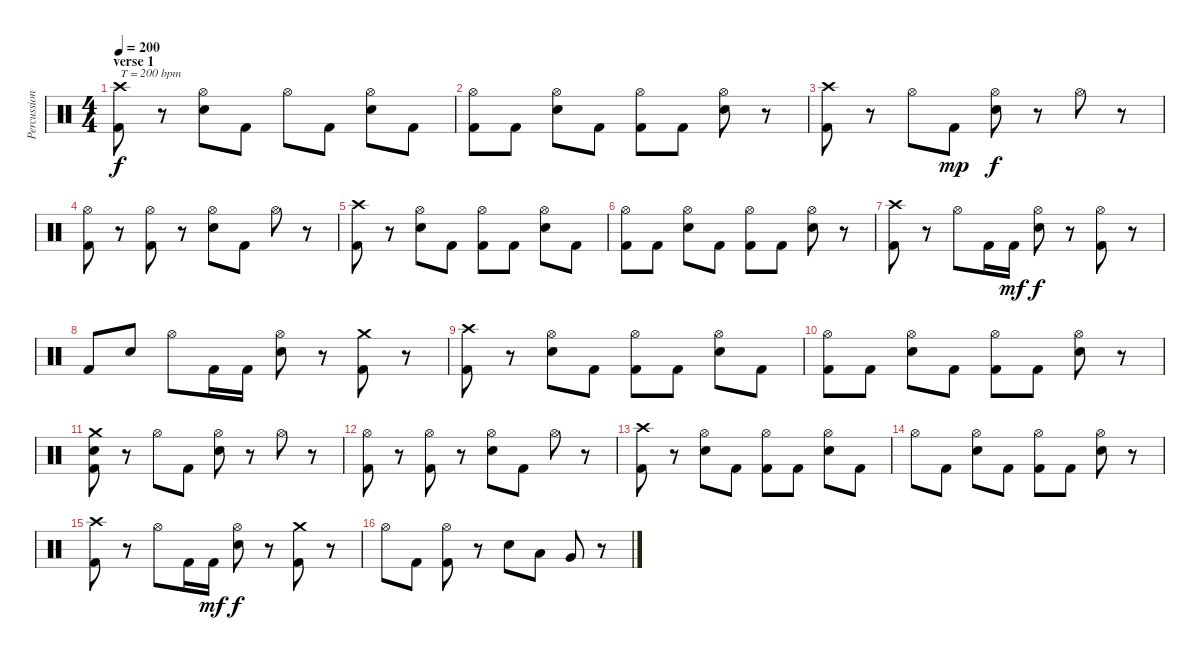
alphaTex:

\track ("Percussion" "Percussion") {instrument percussion}
\staff {score}
\articulation defaults
\ts (4 4)
\section ("" "verse 1")
\tempo 200
\clef neutral
\ks c
("Crash high (hit)" "Kick (hit) 2").8{txt "T = 200 bpm" dy f} r.8 ("Hi-Hat (open)" "Electric Snare (hit)").8 "Kick (hit) 2".8 "Hi-Hat (open)".8 "Kick (hit) 2".8 ("Hi-Hat (open)" "Electric Snare (hit)").8 "Kick (hit) 2".8 |
("Hi-Hat (open)" "Kick (hit) 2").8 "Kick (hit) 2".8 ("Hi-Hat (open)" "Electric Snare (hit)").8 "Kick (hit) 2".8 ("Hi-Hat (open)" "Kick (hit) 2").8 "Kick (hit) 2".8 ("Hi-Hat (open)" "Electric Snare (hit)").8 r.8 |
("Crash high (hit)" "Kick (hit) 2").8 r.8 "Hi-Hat (open)".8 "Kick (hit) 2".8{dy mp} ("Hi-Hat (open)" "Electric Snare (hit)").8{dy f} r.8 "Hi-Hat (open)".8 r.8 |
("Hi-Hat (open)" "Kick (hit) 2").8 r.8 ("Hi-Hat (open)" "Kick (hit) 2").8 r.8 ("Hi-Hat (open)" "Electric Snare (hit)").8 "Kick (hit) 2".8 "Hi-Hat (open)".8 r.8 |
("Crash high (hit)" "Kick (hit) 2").8 r.8 ("Hi-Hat (open)" "Electric Snare (hit)").8 "Kick (hit) 2".8 ("Hi-Hat (open)" "Kick (hit) 2").8 "Kick (hit) 2".8 ("Hi-Hat (open)" "Electric Snare (hit)").8 "Kick (hit) 2".8 |
("Hi-Hat (open)" "Kick (hit) 2").8 "Kick (hit) 2".8 ("Hi-Hat (open)" "Electric Snare (hit)").8 "Kick (hit) 2".8 ("Hi-Hat (open)" "Kick (hit) 2").8 "Kick (hit) 2".8 ("Hi-Hat (open)" "Electric Snare (hit)").8 r.8 |
("Crash high (hit)" "Kick (hit) 2").8 r.8 "Hi-Hat (open)".8 "Kick (hit) 2".16 "Kick (hit) 2".16{dy mf} ("Hi-Hat (open)" "Electric Snare (hit)").8{dy f} r.8 ("Hi-Hat (open)" "Kick (hit) 2").8 r.8 |
"Kick (hit) 2".8 "Electric Snare (hit)".8 "Hi-Hat (open)".8 "Kick (hit) 2".16 "Kick (hit) 2".16 ("Hi-Hat (open)" "Electric Snare (hit)").8 r.8 ("Crash medium (hit)" "Kick (hit) 2").8 r.8 |
("Crash high (hit)" "Kick (hit) 2").8 r.8 ("Hi-Hat (open)" "Electric Snare (hit)").8 "Kick (hit) 2".8 ("Hi-Hat (open)" "Kick (hit) 2").8 "Kick (hit) 2".8 ("Hi-Hat (open)" "Electric Snare (hit)").8 "Kick (hit) 2".8 |
("Hi-Hat (open)" "Kick (hit) 2").8 "Kick (hit) 2".8 ("Hi-Hat (open)" "Electric Snare (hit)").8 "Kick (hit) 2".8 ("Hi-Hat (open)" "Kick (hit) 2").8 "Kick (hit) 2".8 ("Hi-Hat (open)" "Electric Snare (hit)").8 r.8 |
("Crash medium (hit)" "Electric Snare (hit)" "Kick (hit) 2").8 r.8 "Hi-Hat (open)".8 "Kick (hit) 2".8 ("Hi-Hat (open)" "Electric Snare (hit)").8 r.8 "Hi-Hat (open)".8 r.8 |
("Hi-Hat (open)" "Kick (hit) 2").8 r.8 ("Hi-Hat (open)" "Kick (hit) 2").8 r.8 ("Hi-Hat (open)" "Electric Snare (hit)").8 "Kick (hit) 2".8 "Hi-Hat (open)".8 r.8 |
("Crash high (hit)" "Kick (hit) 2").8 r.8 ("Hi-Hat (open)" "Electric Snare (hit)").8 "Kick (hit) 2".8 ("Hi-Hat (open)" "Kick (hit) 2").8 "Kick (hit) 2".8 ("Hi-Hat (open)" "Electric Snare (hit)").8 "Kick (hit) 2".8 |
"Hi-Hat (open)".8 "Kick (hit) 2".8 ("Hi-Hat (open)" "Electric Snare (hit)").8 "Kick (hit) 2".8 ("Hi-Hat (open)" "Kick (hit) 2").8 "Kick (hit) 2".8 ("Hi-Hat (open)" "Electric Snare (hit)").8 r.8 |
("Crash high (hit)" "Kick (hit) 2").8 r.8 "Hi-Hat (open)".8 "Kick (hit) 2".16 "Kick (hit) 2".16{dy mf} ("Hi-Hat (open)" "Electric Snare (hit)").8{dy f} r.8 ("Crash medium (hit)" "Kick (hit) 2").8 r.8 |
"Hi-Hat (open)".8 "Kick (hit) 2".8 ("Hi-Hat (open)" "Kick (hit) 2").8 r.8 "Electric Snare (hit)".8 "Low Tom (hit)".8 "Very Low Tom (hit)".8 r.8
